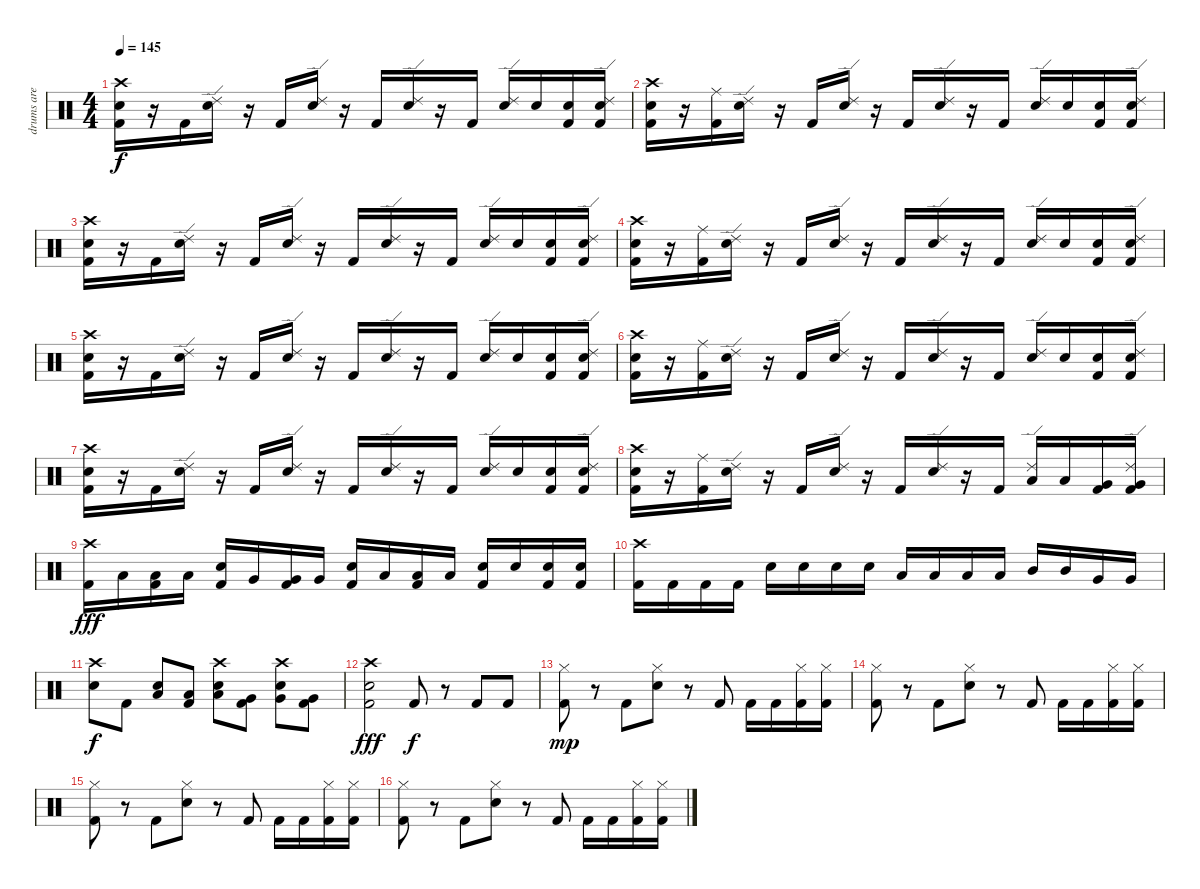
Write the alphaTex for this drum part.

\track ("drums are cool   >.<" "drums are ") {instrument percussion}
\staff {score}
\articulation defaults
\ts (4 4)
\tempo 145
\clef neutral
\ks c
("Crash high (hit)" "Snare (hit) 2" "Kick (hit) 2").16{dy f} r.16 "Kick (hit) 2".16 ("Ride (edge) 2" "Snare (hit) 2").16 r.16 "Kick (hit) 2".16 ("Ride (edge) 2" "Snare (hit) 2").16 r.16 "Kick (hit) 2".16 ("Ride (edge) 2" "Snare (hit) 2").16 r.16 "Kick (hit) 2".16 ("Ride (edge) 2" "Snare (hit) 2").16 "Snare (hit) 2".16 ("Snare (hit) 2" "Kick (hit) 2").16 ("Ride (edge) 2" "Snare (hit) 2" "Kick (hit) 2").16 |
("Crash high (hit)" "Snare (hit) 2" "Kick (hit) 2").16 r.16 ("Ride (middle)" "Kick (hit) 2").16 ("Ride (edge) 2" "Snare (hit) 2").16 r.16 "Kick (hit) 2".16 ("Ride (edge) 2" "Snare (hit) 2").16 r.16 "Kick (hit) 2".16 ("Ride (edge) 2" "Snare (hit) 2").16 r.16 "Kick (hit) 2".16 ("Ride (edge) 2" "Snare (hit) 2").16 "Snare (hit) 2".16 ("Snare (hit) 2" "Kick (hit) 2").16 ("Ride (edge) 2" "Snare (hit) 2" "Kick (hit) 2").16 |
("Crash high (hit)" "Snare (hit) 2" "Kick (hit) 2").16 r.16 "Kick (hit) 2".16 ("Ride (edge) 2" "Snare (hit) 2").16 r.16 "Kick (hit) 2".16 ("Ride (edge) 2" "Snare (hit) 2").16 r.16 "Kick (hit) 2".16 ("Ride (edge) 2" "Snare (hit) 2").16 r.16 "Kick (hit) 2".16 ("Ride (edge) 2" "Snare (hit) 2").16 "Snare (hit) 2".16 ("Snare (hit) 2" "Kick (hit) 2").16 ("Ride (edge) 2" "Snare (hit) 2" "Kick (hit) 2").16 |
("Crash high (hit)" "Snare (hit) 2" "Kick (hit) 2").16 r.16 ("Ride (middle)" "Kick (hit) 2").16 ("Ride (edge) 2" "Snare (hit) 2").16 r.16 "Kick (hit) 2".16 ("Ride (edge) 2" "Snare (hit) 2").16 r.16 "Kick (hit) 2".16 ("Ride (edge) 2" "Snare (hit) 2").16 r.16 "Kick (hit) 2".16 ("Ride (edge) 2" "Snare (hit) 2").16 "Snare (hit) 2".16 ("Snare (hit) 2" "Kick (hit) 2").16 ("Ride (edge) 2" "Snare (hit) 2" "Kick (hit) 2").16 |
("Crash high (hit)" "Snare (hit) 2" "Kick (hit) 2").16 r.16 "Kick (hit) 2".16 ("Ride (edge) 2" "Snare (hit) 2").16 r.16 "Kick (hit) 2".16 ("Ride (edge) 2" "Snare (hit) 2").16 r.16 "Kick (hit) 2".16 ("Ride (edge) 2" "Snare (hit) 2").16 r.16 "Kick (hit) 2".16 ("Ride (edge) 2" "Snare (hit) 2").16 "Snare (hit) 2".16 ("Snare (hit) 2" "Kick (hit) 2").16 ("Ride (edge) 2" "Snare (hit) 2" "Kick (hit) 2").16 |
("Crash high (hit)" "Snare (hit) 2" "Kick (hit) 2").16 r.16 ("Ride (middle)" "Kick (hit) 2").16 ("Ride (edge) 2" "Snare (hit) 2").16 r.16 "Kick (hit) 2".16 ("Ride (edge) 2" "Snare (hit) 2").16 r.16 "Kick (hit) 2".16 ("Ride (edge) 2" "Snare (hit) 2").16 r.16 "Kick (hit) 2".16 ("Ride (edge) 2" "Snare (hit) 2").16 "Snare (hit) 2".16 ("Snare (hit) 2" "Kick (hit) 2").16 ("Ride (edge) 2" "Snare (hit) 2" "Kick (hit) 2").16 |
("Crash high (hit)" "Snare (hit) 2" "Kick (hit) 2").16 r.16 "Kick (hit) 2".16 ("Ride (edge) 2" "Snare (hit) 2").16 r.16 "Kick (hit) 2".16 ("Ride (edge) 2" "Snare (hit) 2").16 r.16 "Kick (hit) 2".16 ("Ride (edge) 2" "Snare (hit) 2").16 r.16 "Kick (hit) 2".16 ("Ride (edge) 2" "Snare (hit) 2").16 "Snare (hit) 2".16 ("Snare (hit) 2" "Kick (hit) 2").16 ("Ride (edge) 2" "Snare (hit) 2" "Kick (hit) 2").16 |
("Crash high (hit)" "Snare (hit) 2" "Kick (hit) 2").16 r.16 ("Ride (middle)" "Kick (hit) 2").16 ("Ride (edge) 2" "Snare (hit) 2").16 r.16 "Kick (hit) 2".16 ("Ride (edge) 2" "Snare (hit) 2").16 r.16 "Kick (hit) 2".16 ("Ride (edge) 2" "Snare (hit) 2").16 r.16 "Kick (hit) 2".16 ("Ride (edge) 2" "Low Tom (hit)").16 "Low Tom (hit)".16 ("Very Low Tom (hit)" "Kick (hit) 2").16 ("Ride (edge) 2" "Very Low Tom (hit)" "Kick (hit) 2").16 |
("Crash high (hit)" "Kick (hit) 2").16{dy fff} "Low Tom (hit)".16 ("Low Tom (hit)" "Kick (hit) 2").16 "Low Tom (hit)".16 ("Snare (hit) 2" "Kick (hit) 2").16 "Very Low Tom (hit)".16 ("Very Low Tom (hit)" "Kick (hit) 2").16 "Very Low Tom (hit)".16 ("Snare (hit) 2" "Kick (hit) 2").16 "Low Tom (hit)".16 ("Low Tom (hit)" "Kick (hit) 2").16 "Low Tom (hit)".16 ("Snare (hit) 2" "Kick (hit) 2").16 "Snare (hit) 2".16 ("Snare (hit) 2" "Kick (hit) 2").16 ("Snare (hit) 2" "Kick (hit) 2").16 |
("Crash high (hit)" "Kick (hit) 2").16 "Kick (hit) 2".16 "Kick (hit) 2".16 "Kick (hit) 2".16 "Snare (hit) 2".16 "Snare (hit) 2".16 "Snare (hit) 2".16 "Snare (hit) 2".16 "Low Tom (hit)".16 "Low Tom (hit)".16 "Low Tom (hit)".16 "Low Tom (hit)".16 "Mid Tom (hit)".16 "Mid Tom (hit)".16 "Very Low Tom (hit)".16 "Very Low Tom (hit)".16 |
("Crash high (hit)" "Snare (hit) 2").8{dy f} "Kick (hit) 2".8 ("Low Tom (hit)" "Snare (hit) 2").8 ("Low Tom (hit)" "Kick (hit) 2").8 ("Crash high (hit)" "Low Tom (hit)" "Snare (hit) 2").8 ("Very Low Tom (hit)" "Kick (hit) 2").8 ("Crash high (hit)" "Very Low Tom (hit)" "Snare (hit) 2").8 ("Very Low Tom (hit)" "Kick (hit) 2").8 |
("Crash high (hit)" "Snare (hit) 2" "Kick (hit) 2").2{dy fff} "Kick (hit) 2".8{dy f} r.8 "Kick (hit) 2".8 "Kick (hit) 2".8 |
("Hi-Hat (closed)" "Kick (hit) 2").8{dy mp} r.8 "Kick (hit) 2".8 ("Hi-Hat (closed)" "Snare (hit) 2").8 r.8 "Kick (hit) 2".8 "Kick (hit) 2".16 "Kick (hit) 2".16 ("Hi-Hat (closed)" "Kick (hit) 2").16 ("Hi-Hat (closed)" "Kick (hit) 2").16 |
("Hi-Hat (closed)" "Kick (hit) 2").8 r.8 "Kick (hit) 2".8 ("Hi-Hat (closed)" "Snare (hit) 2").8 r.8 "Kick (hit) 2".8 "Kick (hit) 2".16 "Kick (hit) 2".16 ("Hi-Hat (closed)" "Kick (hit) 2").16 ("Hi-Hat (closed)" "Kick (hit) 2").16 |
("Hi-Hat (closed)" "Kick (hit) 2").8 r.8 "Kick (hit) 2".8 ("Hi-Hat (closed)" "Snare (hit) 2").8 r.8 "Kick (hit) 2".8 "Kick (hit) 2".16 "Kick (hit) 2".16 ("Hi-Hat (closed)" "Kick (hit) 2").16 ("Hi-Hat (closed)" "Kick (hit) 2").16 |
("Hi-Hat (closed)" "Kick (hit) 2").8 r.8 "Kick (hit) 2".8 ("Hi-Hat (closed)" "Snare (hit) 2").8 r.8 "Kick (hit) 2".8 "Kick (hit) 2".16 "Kick (hit) 2".16 ("Hi-Hat (closed)" "Kick (hit) 2").16 ("Hi-Hat (closed)" "Kick (hit) 2").16
